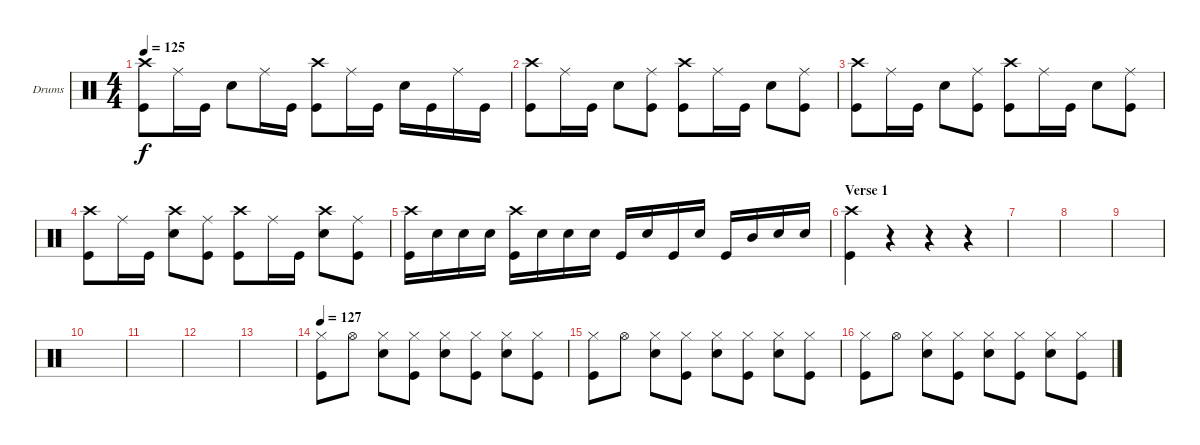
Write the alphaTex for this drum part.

\bracketExtendMode groupsimilarinstruments
\firstSystemTrackNameOrientation horizontal
\otherSystemsTrackNameOrientation horizontal
\track ("Drumkit" "Drums") {instrument percussion}
\staff {score}
\articulation defaults
\ts (4 4)
\tempo 125
\clef neutral
\ks c
("Kick (hit)" "Crash high (hit)").8{dy f} "Ride (middle)".16 "Kick (hit)".16 "Snare (hit) 2".8 "Ride (middle)".16 "Kick (hit)".16 ("Kick (hit)" "Crash high (hit)").8 "Ride (middle)".16 "Kick (hit)".16 "Snare (hit) 2".16 "Kick (hit)".16 "Ride (middle)".16 "Kick (hit)".16 |
("Kick (hit)" "Crash high (hit)").8 "Ride (middle)".16 "Kick (hit)".16 "Snare (hit) 2".8 ("Ride (middle)" "Kick (hit)").8 ("Kick (hit)" "Crash high (hit)").8 "Ride (middle)".16 "Kick (hit)".16 "Snare (hit) 2".8 ("Ride (middle)" "Kick (hit)").8 |
("Kick (hit)" "Crash high (hit)").8 "Ride (middle)".16 "Kick (hit)".16 "Snare (hit) 2".8 ("Ride (middle)" "Kick (hit)").8 ("Kick (hit)" "Crash high (hit)").8 "Ride (middle)".16 "Kick (hit)".16 "Snare (hit) 2".8 ("Ride (middle)" "Kick (hit)").8 |
("Kick (hit)" "Crash high (hit)").8 "Ride (middle)".16 "Kick (hit)".16 ("Snare (hit) 2" "Crash high (hit)").8 ("Ride (middle)" "Kick (hit)").8 ("Kick (hit)" "Crash high (hit)").8 "Ride (middle)".16 "Kick (hit)".16 ("Snare (hit) 2" "Crash high (hit)").8 ("Ride (middle)" "Kick (hit)").8 |
\section ("" "")
("Kick (hit)" "Crash high (hit)").16 "Snare (hit) 2".16 "Snare (hit) 2".16 "Snare (hit) 2".16 ("Kick (hit)" "Crash high (hit)").16 "Snare (hit) 2".16 "Snare (hit) 2".16 "Snare (hit) 2".16 "Kick (hit)".16 "Snare (hit) 2".16 "Kick (hit)".16 "Snare (hit) 2".16 "Kick (hit)".16 "Mid Tom (hit)".16 "Snare (hit) 2".16 "Snare (hit) 2".16 |
\section ("" "Verse 1")
("Kick (hit)" "Crash high (hit)").4 r.4 r.4 r.4 |
|
|
|
|
|
|
|
\tempo 127
("Hi-Hat (closed)" "Kick (hit)").8 "Hi-Hat (open)".8 ("Hi-Hat (closed)" "Snare (hit) 2").8 ("Hi-Hat (closed)" "Kick (hit)").8 ("Hi-Hat (closed)" "Snare (hit) 2").8 ("Hi-Hat (closed)" "Kick (hit)").8 ("Hi-Hat (closed)" "Snare (hit) 2").8 ("Hi-Hat (closed)" "Kick (hit)").8 |
("Hi-Hat (closed)" "Kick (hit)").8 "Hi-Hat (open)".8 ("Hi-Hat (closed)" "Snare (hit) 2").8 ("Hi-Hat (closed)" "Kick (hit)").8 ("Hi-Hat (closed)" "Snare (hit) 2").8 ("Hi-Hat (closed)" "Kick (hit)").8 ("Hi-Hat (closed)" "Snare (hit) 2").8 ("Hi-Hat (closed)" "Kick (hit)").8 |
("Hi-Hat (closed)" "Kick (hit)").8 "Hi-Hat (open)".8 ("Hi-Hat (closed)" "Snare (hit) 2").8 ("Hi-Hat (closed)" "Kick (hit)").8 ("Hi-Hat (closed)" "Snare (hit) 2").8 ("Hi-Hat (closed)" "Kick (hit)").8 ("Hi-Hat (closed)" "Snare (hit) 2").8 ("Hi-Hat (closed)" "Kick (hit)").8
